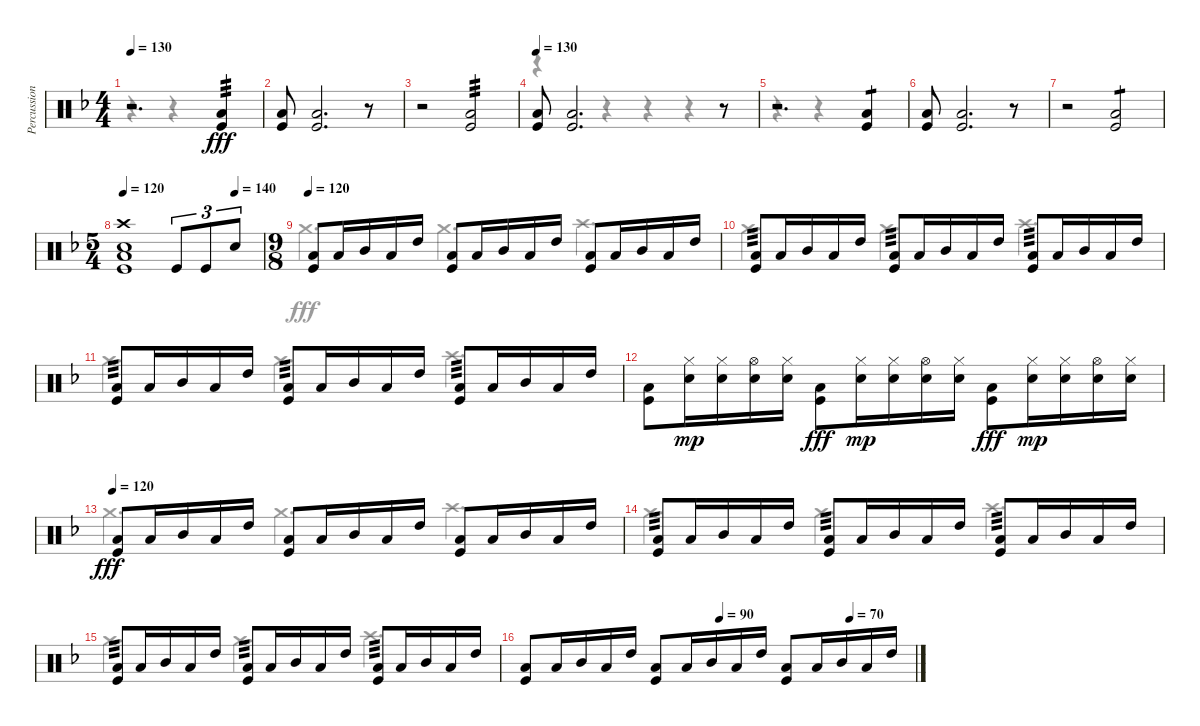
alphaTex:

\track ("Percussion" "Percussion") {instrument percussion}
\staff {score}
\articulation defaults
\voice
\ts (4 4)
\tempo 130
\clef neutral
\ks dminor
r.2{d dy fff} ("Low Floor Tom (hit)" "Kick (hit)").4{tp 3} |
("Low Floor Tom (hit)" "Kick (hit)").8 ("Low Floor Tom (hit)" "Kick (hit)").2{d} r.8 |
r.2 ("Low Floor Tom (hit)" "Kick (hit)").2{tp 3} |
\tempo 130
("Low Floor Tom (hit)" "Kick (hit)").8 ("Low Floor Tom (hit)" "Kick (hit)").2{d} r.8 |
r.2{d} ("Low Floor Tom (hit)" "Kick (hit)").4{tp 1} |
("Low Floor Tom (hit)" "Kick (hit)").8 ("Low Floor Tom (hit)" "Kick (hit)").2{d} r.8 |
r.2 ("Low Floor Tom (hit)" "Kick (hit)").2{tp 1} |
\ts (5 4)
\tempo 120
\tempo (140 0.8)
("Crash high (hit)" "Electric Snare (hit)" "Low Floor Tom (hit)" "Kick (hit)").1 "Kick (hit)".8{tu (3 2)} "Kick (hit)".8{tu (3 2)} "Electric Snare (hit)".8{tu (3 2)} |
\ts (9 8)
\tempo 120
("Low Floor Tom (hit)" "Kick (hit)").8 "Low Tom (hit)".16 "Mid Tom (hit)".16 "Low Tom (hit)".16 "High Tom (hit)".16 ("Low Floor Tom (hit)" "Kick (hit)").8 "Low Tom (hit)".16 "Mid Tom (hit)".16 "Low Tom (hit)".16 "High Tom (hit)".16 ("Low Floor Tom (hit)" "Kick (hit)").8 "Low Tom (hit)".16 "Mid Tom (hit)".16 "Low Tom (hit)".16 "High Tom (hit)".16 |
("Low Floor Tom (hit)" "Kick (hit)").8{tp 3} "Low Tom (hit)".16 "Mid Tom (hit)".16 "Low Tom (hit)".16 "High Tom (hit)".16 ("Low Floor Tom (hit)" "Kick (hit)").8{tp 3} "Low Tom (hit)".16 "Mid Tom (hit)".16 "Low Tom (hit)".16 "High Tom (hit)".16 ("Low Floor Tom (hit)" "Kick (hit)").8{tp 3} "Low Tom (hit)".16 "Mid Tom (hit)".16 "Low Tom (hit)".16 "High Tom (hit)".16 |
("Low Floor Tom (hit)" "Kick (hit)").8{tp 3} "Low Tom (hit)".16 "Mid Tom (hit)".16 "Low Tom (hit)".16 "High Tom (hit)".16 ("Low Floor Tom (hit)" "Kick (hit)").8{tp 3} "Low Tom (hit)".16 "Mid Tom (hit)".16 "Low Tom (hit)".16 "High Tom (hit)".16 ("Low Floor Tom (hit)" "Kick (hit)").8{tp 3} "Low Tom (hit)".16 "Mid Tom (hit)".16 "Low Tom (hit)".16 "High Tom (hit)".16 |
("Low Floor Tom (hit)" "Kick (hit)").8 ("Hi-Hat (closed)" "Electric Snare (hit)").16{dy mp} ("Hi-Hat (closed)" "Electric Snare (hit)").16 ("Hi-Hat (open)" "Electric Snare (hit)").16 ("Hi-Hat (closed)" "Electric Snare (hit)").16 ("Low Floor Tom (hit)" "Kick (hit)").8{dy fff} ("Hi-Hat (closed)" "Electric Snare (hit)").16{dy mp} ("Hi-Hat (closed)" "Electric Snare (hit)").16 ("Hi-Hat (open)" "Electric Snare (hit)").16 ("Hi-Hat (closed)" "Electric Snare (hit)").16 ("Low Floor Tom (hit)" "Kick (hit)").8{dy fff} ("Hi-Hat (closed)" "Electric Snare (hit)").16{dy mp} ("Hi-Hat (closed)" "Electric Snare (hit)").16 ("Hi-Hat (open)" "Electric Snare (hit)").16 ("Hi-Hat (closed)" "Electric Snare (hit)").16 |
\tempo 120
("Low Floor Tom (hit)" "Kick (hit)").8{dy fff} "Low Tom (hit)".16 "Mid Tom (hit)".16 "Low Tom (hit)".16 "High Tom (hit)".16 ("Low Floor Tom (hit)" "Kick (hit)").8 "Low Tom (hit)".16 "Mid Tom (hit)".16 "Low Tom (hit)".16 "High Tom (hit)".16 ("Low Floor Tom (hit)" "Kick (hit)").8 "Low Tom (hit)".16 "Mid Tom (hit)".16 "Low Tom (hit)".16 "High Tom (hit)".16 |
("Low Floor Tom (hit)" "Kick (hit)").8{tp 3} "Low Tom (hit)".16 "Mid Tom (hit)".16 "Low Tom (hit)".16 "High Tom (hit)".16 ("Low Floor Tom (hit)" "Kick (hit)").8{tp 3} "Low Tom (hit)".16 "Mid Tom (hit)".16 "Low Tom (hit)".16 "High Tom (hit)".16 ("Low Floor Tom (hit)" "Kick (hit)").8{tp 3} "Low Tom (hit)".16 "Mid Tom (hit)".16 "Low Tom (hit)".16 "High Tom (hit)".16 |
("Low Floor Tom (hit)" "Kick (hit)").8{tp 3} "Low Tom (hit)".16 "Mid Tom (hit)".16 "Low Tom (hit)".16 "High Tom (hit)".16 ("Low Floor Tom (hit)" "Kick (hit)").8{tp 3} "Low Tom (hit)".16 "Mid Tom (hit)".16 "Low Tom (hit)".16 "High Tom (hit)".16 ("Low Floor Tom (hit)" "Kick (hit)").8{tp 3} "Low Tom (hit)".16 "Mid Tom (hit)".16 "Low Tom (hit)".16 "High Tom (hit)".16 |
\tempo (90 0.5)
\tempo (70 0.8333333333333334)
("Low Floor Tom (hit)" "Kick (hit)").8 "Low Tom (hit)".16 "Mid Tom (hit)".16 "Low Tom (hit)".16 "High Tom (hit)".16 ("Low Floor Tom (hit)" "Kick (hit)").8 "Low Tom (hit)".16 "Mid Tom (hit)".16 "Low Tom (hit)".16 "High Tom (hit)".16 ("Low Floor Tom (hit)" "Kick (hit)").8 "Low Tom (hit)".16 "Mid Tom (hit)".16 "Low Tom (hit)".16 "High Tom (hit)".16
\voice
\clef neutral
\ottava regular
\simile none
\ks dminor
r.4{dy fff} r.4 |
|
|
r.4 r.4 r.4 r.4 |
r.4 r.4 |
|
|
|
"Crash medium (hit)".4{d} "Crash medium (hit)".4{d} "Crash high (hit)".4{d} |
"Crash medium (hit)".4{d} "Crash medium (hit)".4{d} "Crash high (hit)".4{d} |
"Crash medium (hit)".4{d} "Crash medium (hit)".4{d} "Crash high (hit)".4{d} |
|
"Crash medium (hit)".4{d} "Crash medium (hit)".4{d} "Crash high (hit)".4{d} |
"Crash medium (hit)".4{d} "Crash medium (hit)".4{d} "Crash high (hit)".4{d} |
"Crash medium (hit)".4{d} "Crash medium (hit)".4{d} "Crash high (hit)".4{d} |
